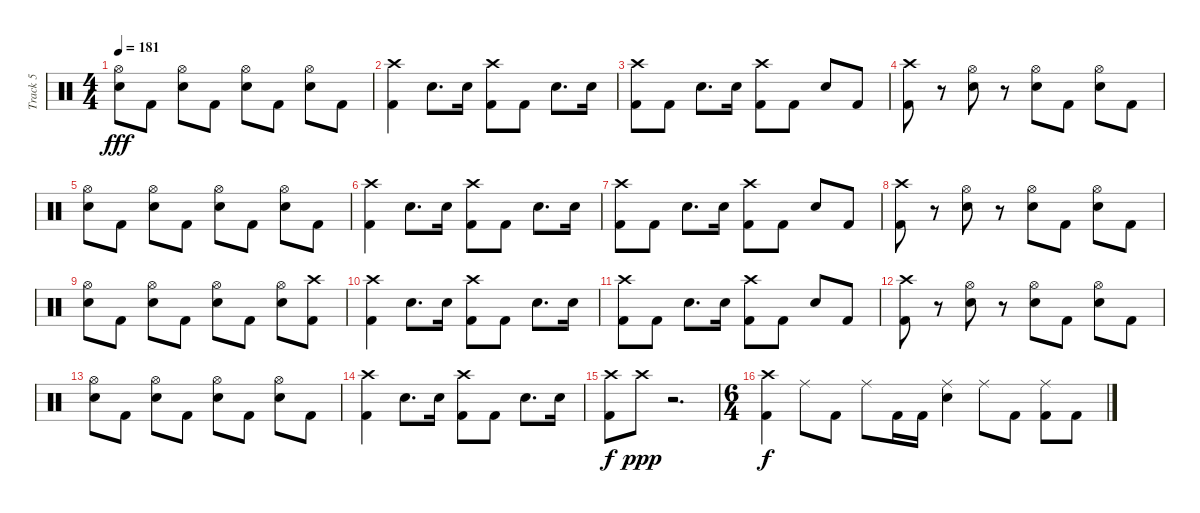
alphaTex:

\track ("Track 5" "Track 5") {instrument percussion}
\staff {score}
\articulation defaults
\ts (4 4)
\tempo 181
\clef neutral
\ks c
("Electric Snare (hit)" "Hi-Hat (open)").8{dy fff} "Kick (hit) 2".8 ("Electric Snare (hit)" "Hi-Hat (open)").8 "Kick (hit) 2".8 ("Electric Snare (hit)" "Hi-Hat (open)").8 "Kick (hit) 2".8 ("Electric Snare (hit)" "Hi-Hat (open)").8 "Kick (hit) 2".8 |
("Kick (hit) 2" "Crash high (hit)").4 "Electric Snare (hit)".8{d} "Electric Snare (hit)".16 ("Kick (hit) 2" "Crash high (hit)").8 "Kick (hit) 2".8 "Electric Snare (hit)".8{d} "Electric Snare (hit)".16 |
("Kick (hit) 2" "Crash high (hit)").8 "Kick (hit) 2".8 "Electric Snare (hit)".8{d} "Electric Snare (hit)".16 ("Kick (hit) 2" "Crash high (hit)").8 "Kick (hit) 2".8 "Electric Snare (hit)".8 "Kick (hit) 2".8 |
("Crash high (hit)" "Kick (hit) 2").8 r.8 ("Electric Snare (hit)" "Hi-Hat (open)").8 r.8 ("Electric Snare (hit)" "Hi-Hat (open)").8 "Kick (hit) 2".8 ("Electric Snare (hit)" "Hi-Hat (open)").8 "Kick (hit) 2".8 |
("Electric Snare (hit)" "Hi-Hat (open)").8 "Kick (hit) 2".8 ("Electric Snare (hit)" "Hi-Hat (open)").8 "Kick (hit) 2".8 ("Electric Snare (hit)" "Hi-Hat (open)").8 "Kick (hit) 2".8 ("Electric Snare (hit)" "Hi-Hat (open)").8 "Kick (hit) 2".8 |
("Kick (hit) 2" "Crash high (hit)").4 "Electric Snare (hit)".8{d} "Electric Snare (hit)".16 ("Kick (hit) 2" "Crash high (hit)").8 "Kick (hit) 2".8 "Electric Snare (hit)".8{d} "Electric Snare (hit)".16 |
("Kick (hit) 2" "Crash high (hit)").8 "Kick (hit) 2".8 "Electric Snare (hit)".8{d} "Electric Snare (hit)".16 ("Kick (hit) 2" "Crash high (hit)").8 "Kick (hit) 2".8 "Electric Snare (hit)".8 "Kick (hit) 2".8 |
("Crash high (hit)" "Kick (hit) 2").8 r.8 ("Electric Snare (hit)" "Hi-Hat (open)").8 r.8 ("Electric Snare (hit)" "Hi-Hat (open)").8 "Kick (hit) 2".8 ("Electric Snare (hit)" "Hi-Hat (open)").8 "Kick (hit) 2".8 |
("Electric Snare (hit)" "Hi-Hat (open)").8 "Kick (hit) 2".8 ("Electric Snare (hit)" "Hi-Hat (open)").8 "Kick (hit) 2".8 ("Electric Snare (hit)" "Hi-Hat (open)").8 "Kick (hit) 2".8 ("Electric Snare (hit)" "Hi-Hat (open)").8 ("Kick (hit) 2" "Crash high (hit)").8 |
("Kick (hit) 2" "Crash high (hit)").4 "Electric Snare (hit)".8{d} "Electric Snare (hit)".16 ("Kick (hit) 2" "Crash high (hit)").8 "Kick (hit) 2".8 "Electric Snare (hit)".8{d} "Electric Snare (hit)".16 |
("Kick (hit) 2" "Crash high (hit)").8 "Kick (hit) 2".8 "Electric Snare (hit)".8{d} "Electric Snare (hit)".16 ("Kick (hit) 2" "Crash high (hit)").8 "Kick (hit) 2".8 "Electric Snare (hit)".8 "Kick (hit) 2".8 |
("Crash high (hit)" "Kick (hit) 2").8 r.8 ("Electric Snare (hit)" "Hi-Hat (open)").8 r.8 ("Electric Snare (hit)" "Hi-Hat (open)").8 "Kick (hit) 2".8 ("Electric Snare (hit)" "Hi-Hat (open)").8 "Kick (hit) 2".8 |
("Electric Snare (hit)" "Hi-Hat (open)").8 "Kick (hit) 2".8 ("Electric Snare (hit)" "Hi-Hat (open)").8 "Kick (hit) 2".8 ("Electric Snare (hit)" "Hi-Hat (open)").8 "Kick (hit) 2".8 ("Electric Snare (hit)" "Hi-Hat (open)").8 "Kick (hit) 2".8 |
("Kick (hit) 2" "Crash high (hit)").4 "Electric Snare (hit)".8{d} "Electric Snare (hit)".16 ("Kick (hit) 2" "Crash high (hit)").8 "Kick (hit) 2".8 "Electric Snare (hit)".8{d} "Electric Snare (hit)".16 |
("Crash high (hit)" "Kick (hit) 2").8{dy f} "Crash high (hit)".8{dy ppp} r.2{d} |
\ts (6 4)
("Kick (hit) 2" "Crash high (hit)").4{dy f} "Ride (middle)".8 "Kick (hit) 2".8 "Ride (middle)".8 "Kick (hit) 2".16 "Kick (hit) 2".16 ("Electric Snare (hit)" "Ride (middle)").4 "Ride (middle)".8 "Kick (hit) 2".8 ("Kick (hit) 2" "Ride (middle)").8 "Kick (hit) 2".8
